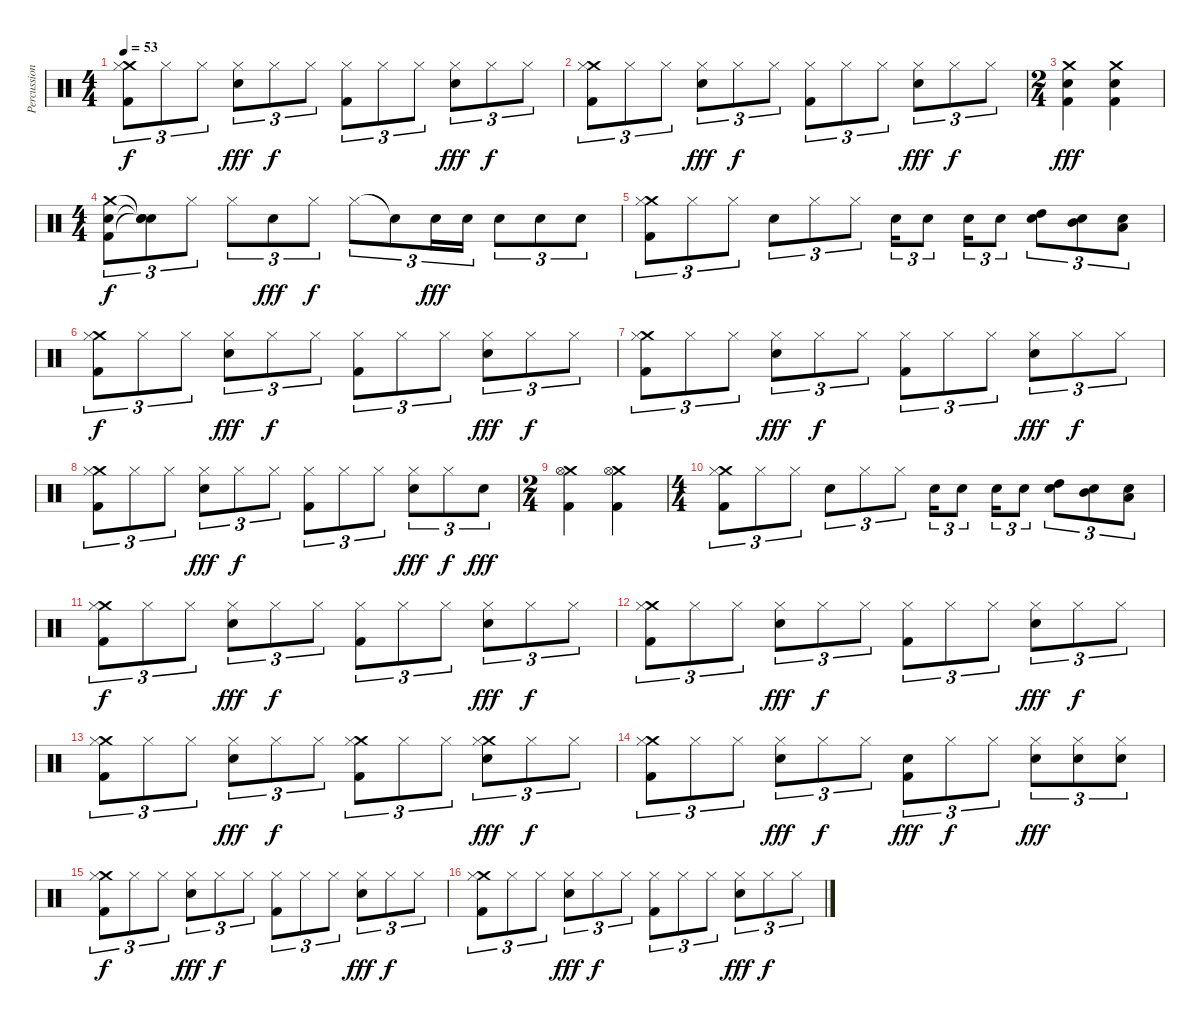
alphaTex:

\track ("Percussion" "Percussion") {instrument percussion}
\staff {score}
\articulation defaults
\ts (4 4)
\tempo 53
\clef neutral
\ks c
("Crash medium (hit)" "Hi-Hat (closed)" "Kick (hit) 2").8{tu (3 2) dy f} "Hi-Hat (closed)".8{tu (3 2)} "Hi-Hat (closed)".8{tu (3 2)} ("Snare (hit) 2" "Hi-Hat (closed)").8{tu (3 2) dy fff} "Hi-Hat (closed)".8{tu (3 2) dy f} "Hi-Hat (closed)".8{tu (3 2)} ("Hi-Hat (closed)" "Kick (hit) 2").8{tu (3 2)} "Hi-Hat (closed)".8{tu (3 2)} "Hi-Hat (closed)".8{tu (3 2)} ("Snare (hit) 2" "Hi-Hat (closed)").8{tu (3 2) dy fff} "Hi-Hat (closed)".8{tu (3 2) dy f} "Hi-Hat (closed)".8{tu (3 2)} |
("Crash medium (hit)" "Hi-Hat (closed)" "Kick (hit) 2").8{tu (3 2)} "Hi-Hat (closed)".8{tu (3 2)} "Hi-Hat (closed)".8{tu (3 2)} ("Snare (hit) 2" "Hi-Hat (closed)").8{tu (3 2) dy fff} "Hi-Hat (closed)".8{tu (3 2) dy f} "Hi-Hat (closed)".8{tu (3 2)} ("Hi-Hat (closed)" "Kick (hit) 2").8{tu (3 2)} "Hi-Hat (closed)".8{tu (3 2)} "Hi-Hat (closed)".8{tu (3 2)} ("Snare (hit) 2" "Hi-Hat (closed)").8{tu (3 2) dy fff} "Hi-Hat (closed)".8{tu (3 2) dy f} "Hi-Hat (closed)".8{tu (3 2)} |
\ts (2 4)
("Crash medium (hit)" "Kick (hit) 2" "Snare (hit) 2").4{dy fff} ("Crash medium (hit)" "Kick (hit) 2" "Snare (hit) 2").4 |
\ts (4 4)
("Crash medium (hit)" "Kick (hit) 2" "Snare (hit) 2").8{tu (3 2) dy f volume 16} ("Snare (hit)"{t} "Snare (hit)"{t} "Snare (hit)"{t}).8{tu (3 2)} "Hi-Hat (closed)".8{tu (3 2)} "Hi-Hat (closed)".8{tu (3 2)} "Snare (hit) 2".8{tu (3 2) dy fff} "Hi-Hat (closed)".8{tu (3 2) dy f} "Hi-Hat (closed)".8{tu (3 2)} "Snare (hit)"{t}.8{tu (3 2)} "Snare (hit) 2".16{tu (3 2) dy fff} "Snare (hit) 2".16{tu (3 2)} "Snare (hit) 2".8{tu (3 2)} "Snare (hit) 2".8{tu (3 2)} "Snare (hit) 2".8{tu (3 2)} |
("Crash medium (hit)" "Kick (hit) 2" "Hi-Hat (closed)").8{tu (3 2)} "Hi-Hat (closed)".8{tu (3 2)} "Hi-Hat (closed)".8{tu (3 2)} "Snare (hit) 2".8{tu (3 2)} "Hi-Hat (closed)".8{tu (3 2)} "Hi-Hat (closed)".8{tu (3 2)} "Snare (hit) 2".16{tu (3 2)} "Snare (hit) 2".8{tu (3 2)} "Snare (hit) 2".16{tu (3 2)} "Snare (hit) 2".8{tu (3 2)} ("High Tom (hit)" "Snare (hit) 2").8{tu (3 2)} ("Mid Tom (hit)" "Snare (hit) 2").8{tu (3 2)} ("Low Tom (hit)" "Snare (hit) 2").8{tu (3 2)} |
("Crash medium (hit)" "Hi-Hat (closed)" "Kick (hit) 2").8{tu (3 2) dy f} "Hi-Hat (closed)".8{tu (3 2)} "Hi-Hat (closed)".8{tu (3 2)} ("Snare (hit) 2" "Hi-Hat (closed)").8{tu (3 2) dy fff} "Hi-Hat (closed)".8{tu (3 2) dy f} "Hi-Hat (closed)".8{tu (3 2)} ("Hi-Hat (closed)" "Kick (hit) 2").8{tu (3 2)} "Hi-Hat (closed)".8{tu (3 2)} "Hi-Hat (closed)".8{tu (3 2)} ("Snare (hit) 2" "Hi-Hat (closed)").8{tu (3 2) dy fff} "Hi-Hat (closed)".8{tu (3 2) dy f} "Hi-Hat (closed)".8{tu (3 2)} |
("Crash medium (hit)" "Hi-Hat (closed)" "Kick (hit) 2").8{tu (3 2)} "Hi-Hat (closed)".8{tu (3 2)} "Hi-Hat (closed)".8{tu (3 2)} ("Snare (hit) 2" "Hi-Hat (closed)").8{tu (3 2) dy fff} "Hi-Hat (closed)".8{tu (3 2) dy f} "Hi-Hat (closed)".8{tu (3 2)} ("Hi-Hat (closed)" "Kick (hit) 2").8{tu (3 2)} "Hi-Hat (closed)".8{tu (3 2)} "Hi-Hat (closed)".8{tu (3 2)} ("Snare (hit) 2" "Hi-Hat (closed)").8{tu (3 2) dy fff} "Hi-Hat (closed)".8{tu (3 2) dy f} "Hi-Hat (closed)".8{tu (3 2)} |
("Crash medium (hit)" "Hi-Hat (closed)" "Kick (hit) 2").8{tu (3 2)} "Hi-Hat (closed)".8{tu (3 2)} "Hi-Hat (closed)".8{tu (3 2)} ("Snare (hit) 2" "Hi-Hat (closed)").8{tu (3 2) dy fff} "Hi-Hat (closed)".8{tu (3 2) dy f} "Hi-Hat (closed)".8{tu (3 2)} ("Hi-Hat (closed)" "Kick (hit) 2").8{tu (3 2)} "Hi-Hat (closed)".8{tu (3 2)} "Hi-Hat (closed)".8{tu (3 2)} ("Snare (hit) 2" "Hi-Hat (closed)").8{tu (3 2) dy fff} "Hi-Hat (closed)".8{tu (3 2) dy f} "Snare (hit) 2".8{tu (3 2) dy fff} |
\ts (2 4)
("Crash medium (hit)" "Kick (hit) 2" "Hi-Hat (open)").4 ("Crash medium (hit)" "Kick (hit) 2" "Hi-Hat (open)").4 |
\ts (4 4)
("Crash medium (hit)" "Kick (hit) 2" "Hi-Hat (closed)").8{tu (3 2)} "Hi-Hat (closed)".8{tu (3 2)} "Hi-Hat (closed)".8{tu (3 2)} "Snare (hit) 2".8{tu (3 2)} "Hi-Hat (closed)".8{tu (3 2)} "Hi-Hat (closed)".8{tu (3 2)} "Snare (hit) 2".16{tu (3 2)} "Snare (hit) 2".8{tu (3 2)} "Snare (hit) 2".16{tu (3 2)} "Snare (hit) 2".8{tu (3 2)} ("High Tom (hit)" "Snare (hit) 2").8{tu (3 2)} ("Mid Tom (hit)" "Snare (hit) 2").8{tu (3 2)} ("Low Tom (hit)" "Snare (hit) 2").8{tu (3 2)} |
("Crash medium (hit)" "Hi-Hat (closed)" "Kick (hit) 2").8{tu (3 2) dy f volume 16} "Hi-Hat (closed)".8{tu (3 2)} "Hi-Hat (closed)".8{tu (3 2)} ("Snare (hit) 2" "Hi-Hat (closed)").8{tu (3 2) dy fff} "Hi-Hat (closed)".8{tu (3 2) dy f} "Hi-Hat (closed)".8{tu (3 2)} ("Hi-Hat (closed)" "Kick (hit) 2").8{tu (3 2)} "Hi-Hat (closed)".8{tu (3 2)} "Hi-Hat (closed)".8{tu (3 2)} ("Snare (hit) 2" "Hi-Hat (closed)").8{tu (3 2) dy fff} "Hi-Hat (closed)".8{tu (3 2) dy f} "Hi-Hat (closed)".8{tu (3 2)} |
("Crash medium (hit)" "Hi-Hat (closed)" "Kick (hit) 2").8{tu (3 2)} "Hi-Hat (closed)".8{tu (3 2)} "Hi-Hat (closed)".8{tu (3 2)} ("Snare (hit) 2" "Hi-Hat (closed)").8{tu (3 2) dy fff} "Hi-Hat (closed)".8{tu (3 2) dy f} "Hi-Hat (closed)".8{tu (3 2)} ("Hi-Hat (closed)" "Kick (hit) 2").8{tu (3 2)} "Hi-Hat (closed)".8{tu (3 2)} "Hi-Hat (closed)".8{tu (3 2)} ("Snare (hit) 2" "Hi-Hat (closed)").8{tu (3 2) dy fff} "Hi-Hat (closed)".8{tu (3 2) dy f} "Hi-Hat (closed)".8{tu (3 2)} |
("Crash medium (hit)" "Hi-Hat (closed)" "Kick (hit) 2").8{tu (3 2)} "Hi-Hat (closed)".8{tu (3 2)} "Hi-Hat (closed)".8{tu (3 2)} ("Snare (hit) 2" "Hi-Hat (closed)").8{tu (3 2) dy fff} "Hi-Hat (closed)".8{tu (3 2) dy f} "Hi-Hat (closed)".8{tu (3 2)} ("Crash medium (hit)" "Hi-Hat (closed)" "Kick (hit) 2").8{tu (3 2)} "Hi-Hat (closed)".8{tu (3 2)} "Hi-Hat (closed)".8{tu (3 2)} ("Crash medium (hit)" "Snare (hit) 2" "Hi-Hat (closed)").8{tu (3 2) dy fff} "Hi-Hat (closed)".8{tu (3 2) dy f} "Hi-Hat (closed)".8{tu (3 2)} |
("Crash medium (hit)" "Hi-Hat (closed)" "Kick (hit) 2").8{tu (3 2)} "Hi-Hat (closed)".8{tu (3 2)} "Hi-Hat (closed)".8{tu (3 2)} ("Snare (hit) 2" "Hi-Hat (closed)").8{tu (3 2) dy fff} "Hi-Hat (closed)".8{tu (3 2) dy f} "Hi-Hat (closed)".8{tu (3 2)} ("Snare (hit) 2" "Kick (hit) 2").8{tu (3 2) dy fff} "Hi-Hat (closed)".8{tu (3 2) dy f} "Hi-Hat (closed)".8{tu (3 2)} ("Snare (hit) 2" "Hi-Hat (closed)").8{tu (3 2) dy fff} ("Snare (hit) 2" "Hi-Hat (closed)").8{tu (3 2)} ("Snare (hit) 2" "Hi-Hat (closed)").8{tu (3 2)} |
("Crash medium (hit)" "Hi-Hat (closed)" "Kick (hit) 2").8{tu (3 2) dy f volume 16} "Hi-Hat (closed)".8{tu (3 2)} "Hi-Hat (closed)".8{tu (3 2)} ("Snare (hit) 2" "Hi-Hat (closed)").8{tu (3 2) dy fff} "Hi-Hat (closed)".8{tu (3 2) dy f} "Hi-Hat (closed)".8{tu (3 2)} ("Hi-Hat (closed)" "Kick (hit) 2").8{tu (3 2)} "Hi-Hat (closed)".8{tu (3 2)} "Hi-Hat (closed)".8{tu (3 2)} ("Snare (hit) 2" "Hi-Hat (closed)").8{tu (3 2) dy fff} "Hi-Hat (closed)".8{tu (3 2) dy f} "Hi-Hat (closed)".8{tu (3 2)} |
("Crash medium (hit)" "Hi-Hat (closed)" "Kick (hit) 2").8{tu (3 2)} "Hi-Hat (closed)".8{tu (3 2)} "Hi-Hat (closed)".8{tu (3 2)} ("Snare (hit) 2" "Hi-Hat (closed)").8{tu (3 2) dy fff} "Hi-Hat (closed)".8{tu (3 2) dy f} "Hi-Hat (closed)".8{tu (3 2)} ("Hi-Hat (closed)" "Kick (hit) 2").8{tu (3 2)} "Hi-Hat (closed)".8{tu (3 2)} "Hi-Hat (closed)".8{tu (3 2)} ("Snare (hit) 2" "Hi-Hat (closed)").8{tu (3 2) dy fff} "Hi-Hat (closed)".8{tu (3 2) dy f} "Hi-Hat (closed)".8{tu (3 2)}
